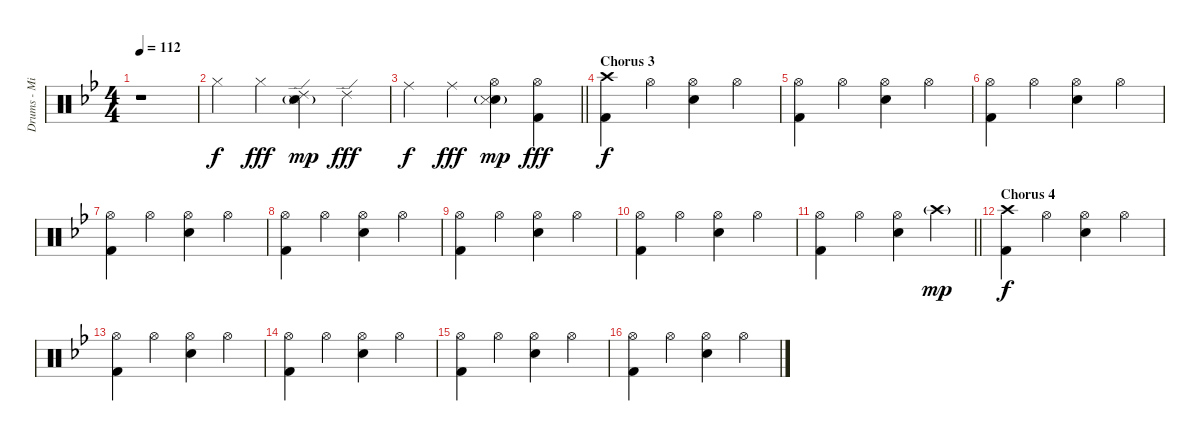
\track ("Drums - Mikko" "Drums - Mi") {instrument percussion}
\staff {score}
\articulation defaults
\ts (4 4)
\tempo 112
\clef neutral
\ks bb
r.1{dy f} |
"Hi-Hat (closed)".4 "Hi-Hat (closed)".4{dy fff} ("Ride (edge) 2" "Snare (hit) 2"{g} "Snare (side stick) 3"{g}).4{dy mp} "Ride (edge) 2".4{dy fff} |
\barLineRight lightlight "Ride (middle)".4{dy f} "Ride (middle)".4{dy fff}
("Hi-Hat (open)" "Snare (hit) 2"{g} "Snare (side stick) 3"{g}).4{dy mp} ("Hi-Hat (open)" "Kick (hit) 2").4{dy fff} |
\section ("" "Chorus 3")
("Crash high (hit)" "Kick (hit) 2").4{dy f} "Hi-Hat (open)".4 ("Hi-Hat (open)" "Electric Snare (hit)").4 "Hi-Hat (open)".4 |
("Hi-Hat (open)" "Kick (hit) 2").4 "Hi-Hat (open)".4 ("Hi-Hat (open)" "Electric Snare (hit)").4 "Hi-Hat (open)".4 |
("Hi-Hat (open)" "Kick (hit) 2").4 "Hi-Hat (open)".4 ("Hi-Hat (open)" "Electric Snare (hit)").4 "Hi-Hat (open)".4 |
("Hi-Hat (open)" "Kick (hit) 2").4 "Hi-Hat (open)".4 ("Hi-Hat (open)" "Electric Snare (hit)").4 "Hi-Hat (open)".4 |
("Hi-Hat (open)" "Kick (hit) 2").4 "Hi-Hat (open)".4 ("Hi-Hat (open)" "Electric Snare (hit)").4 "Hi-Hat (open)".4 |
("Hi-Hat (open)" "Kick (hit) 2").4 "Hi-Hat (open)".4 ("Hi-Hat (open)" "Electric Snare (hit)").4 "Hi-Hat (open)".4 |
("Hi-Hat (open)" "Kick (hit) 2").4 "Hi-Hat (open)".4 ("Hi-Hat (open)" "Electric Snare (hit)").4 "Hi-Hat (open)".4 |
\barLineRight lightlight
("Hi-Hat (open)" "Kick (hit) 2").4 "Hi-Hat (open)".4 ("Hi-Hat (open)" "Electric Snare (hit)").4 "Crash high (hit)"{g}.4{dy mp} |
\section ("" "Chorus 4")
("Crash high (hit)" "Kick (hit) 2").4{dy f} "Hi-Hat (open)".4 ("Hi-Hat (open)" "Electric Snare (hit)").4 "Hi-Hat (open)".4 |
("Hi-Hat (open)" "Kick (hit) 2").4 "Hi-Hat (open)".4 ("Hi-Hat (open)" "Electric Snare (hit)").4 "Hi-Hat (open)".4 |
("Hi-Hat (open)" "Kick (hit) 2").4 "Hi-Hat (open)".4 ("Hi-Hat (open)" "Electric Snare (hit)").4 "Hi-Hat (open)".4 |
("Hi-Hat (open)" "Kick (hit) 2").4 "Hi-Hat (open)".4 ("Hi-Hat (open)" "Electric Snare (hit)").4 "Hi-Hat (open)".4 |
("Hi-Hat (open)" "Kick (hit) 2").4 "Hi-Hat (open)".4 ("Hi-Hat (open)" "Electric Snare (hit)").4 "Hi-Hat (open)".4
